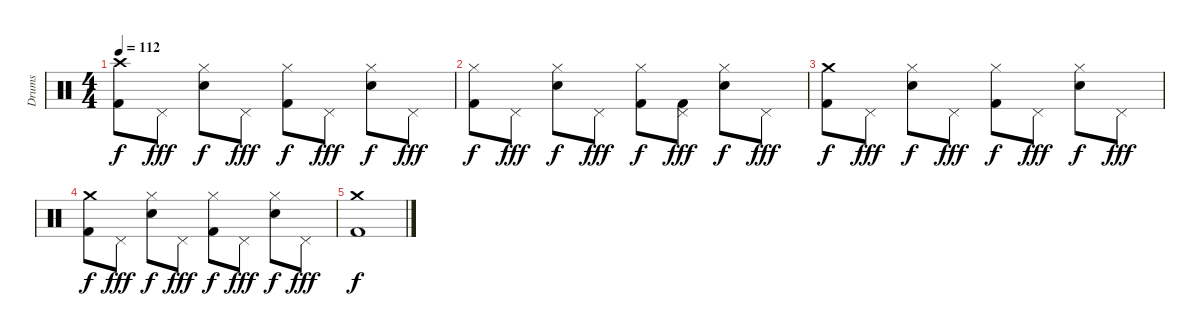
\track ("Drums" "Drums") {instrument percussion}
\staff {score}
\articulation defaults
\ts (4 4)
\tempo 112
\clef neutral
\ks c
("Kick (hit) 2" "Crash high (hit)").8{dy f} "Pedal Hi-Hat (hit)".8{dy fff} ("Hi-Hat (closed)" "Snare (hit) 2").8{dy f} "Pedal Hi-Hat (hit)".8{dy fff} ("Kick (hit) 2" "Hi-Hat (closed)").8{dy f} "Pedal Hi-Hat (hit)".8{dy fff} ("Hi-Hat (closed)" "Snare (hit) 2").8{dy f} "Pedal Hi-Hat (hit)".8{dy fff} |
("Kick (hit) 2" "Hi-Hat (closed)").8{dy f} "Pedal Hi-Hat (hit)".8{dy fff} ("Hi-Hat (closed)" "Snare (hit) 2").8{dy f} "Pedal Hi-Hat (hit)".8{dy fff} ("Kick (hit) 2" "Hi-Hat (closed)").8{dy f} ("Kick (hit) 2" "Pedal Hi-Hat (hit)").8{dy fff} ("Hi-Hat (closed)" "Snare (hit) 2").8{dy f} "Pedal Hi-Hat (hit)".8{dy fff} |
("Kick (hit) 2" "Crash medium (hit)").8{dy f} "Pedal Hi-Hat (hit)".8{dy fff} ("Hi-Hat (closed)" "Snare (hit) 2").8{dy f} "Pedal Hi-Hat (hit)".8{dy fff} ("Kick (hit) 2" "Hi-Hat (closed)").8{dy f} "Pedal Hi-Hat (hit)".8{dy fff} ("Hi-Hat (closed)" "Snare (hit) 2").8{dy f} "Pedal Hi-Hat (hit)".8{dy fff} |
("Kick (hit) 2" "Crash medium (hit)").8{dy f} "Pedal Hi-Hat (hit)".8{dy fff} ("Hi-Hat (closed)" "Snare (hit) 2").8{dy f} "Pedal Hi-Hat (hit)".8{dy fff} ("Kick (hit) 2" "Hi-Hat (closed)").8{dy f} "Pedal Hi-Hat (hit)".8{dy fff} ("Hi-Hat (closed)" "Snare (hit) 2").8{dy f} "Pedal Hi-Hat (hit)".8{dy fff} |
("Kick (hit) 2" "Crash medium (hit)").1{dy f}
